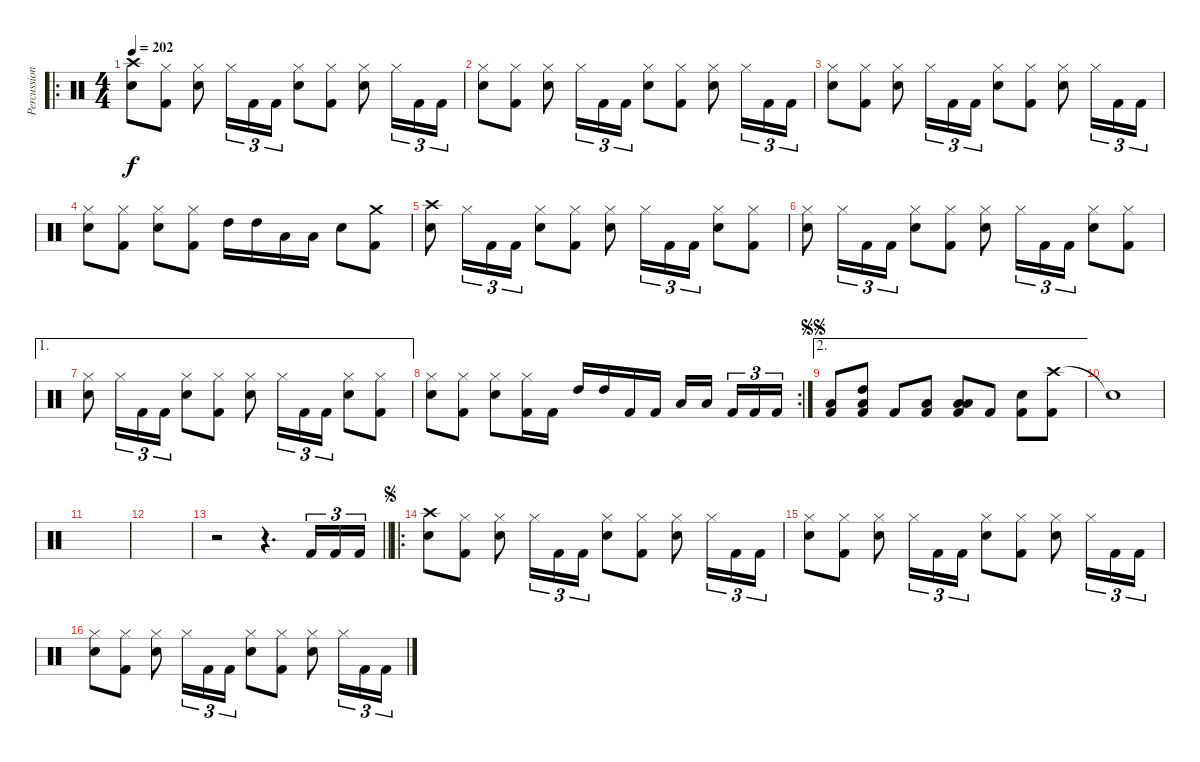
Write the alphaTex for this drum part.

\track ("Percussion" "Percussion") {instrument percussion}
\staff {score}
\articulation defaults
\ro
\ts (4 4)
\tempo 202
\clef neutral
\ks c
("Crash high (hit)" "Electric Snare (hit)").8{dy f} ("Hi-Hat (closed)" "Kick (hit) 2").8 ("Hi-Hat (closed)" "Electric Snare (hit)").8 "Hi-Hat (closed)".16{tu (3 2)} "Kick (hit) 2".16{tu (3 2)} "Kick (hit) 2".16{tu (3 2)} ("Hi-Hat (closed)" "Electric Snare (hit)").8 ("Hi-Hat (closed)" "Kick (hit) 2").8 ("Hi-Hat (closed)" "Electric Snare (hit)").8 "Hi-Hat (closed)".16{tu (3 2)} "Kick (hit) 2".16{tu (3 2)} "Kick (hit) 2".16{tu (3 2)} |
("Hi-Hat (closed)" "Electric Snare (hit)").8 ("Hi-Hat (closed)" "Kick (hit) 2").8 ("Hi-Hat (closed)" "Electric Snare (hit)").8 "Hi-Hat (closed)".16{tu (3 2)} "Kick (hit) 2".16{tu (3 2)} "Kick (hit) 2".16{tu (3 2)} ("Hi-Hat (closed)" "Electric Snare (hit)").8 ("Hi-Hat (closed)" "Kick (hit) 2").8 ("Hi-Hat (closed)" "Electric Snare (hit)").8 "Hi-Hat (closed)".16{tu (3 2)} "Kick (hit) 2".16{tu (3 2)} "Kick (hit) 2".16{tu (3 2)} |
("Hi-Hat (closed)" "Electric Snare (hit)").8 ("Hi-Hat (closed)" "Kick (hit) 2").8 ("Hi-Hat (closed)" "Electric Snare (hit)").8 "Hi-Hat (closed)".16{tu (3 2)} "Kick (hit) 2".16{tu (3 2)} "Kick (hit) 2".16{tu (3 2)} ("Hi-Hat (closed)" "Electric Snare (hit)").8 ("Hi-Hat (closed)" "Kick (hit) 2").8 ("Hi-Hat (closed)" "Electric Snare (hit)").8 "Hi-Hat (closed)".16{tu (3 2)} "Kick (hit) 2".16{tu (3 2)} "Kick (hit) 2".16{tu (3 2)} |
("Hi-Hat (closed)" "Electric Snare (hit)").8 ("Hi-Hat (closed)" "Kick (hit) 2").8 ("Hi-Hat (closed)" "Electric Snare (hit)").8 ("Hi-Hat (closed)" "Kick (hit) 2").8 "High Tom (hit)".16 "High Tom (hit)".16 "Low Tom (hit)".16 "Low Tom (hit)".16 "Electric Snare (hit)".8 ("Crash medium (hit)" "Kick (hit) 2").8 |
("Crash high (hit)" "Electric Snare (hit)").8 "Hi-Hat (closed)".16{tu (3 2)} "Kick (hit) 2".16{tu (3 2)} "Kick (hit) 2".16{tu (3 2)} ("Hi-Hat (closed)" "Electric Snare (hit)").8 ("Hi-Hat (closed)" "Kick (hit) 2").8 ("Hi-Hat (closed)" "Electric Snare (hit)").8 "Hi-Hat (closed)".16{tu (3 2)} "Kick (hit) 2".16{tu (3 2)} "Kick (hit) 2".16{tu (3 2)} ("Hi-Hat (closed)" "Electric Snare (hit)").8 ("Hi-Hat (closed)" "Kick (hit) 2").8 |
("Hi-Hat (closed)" "Electric Snare (hit)").8 "Hi-Hat (closed)".16{tu (3 2)} "Kick (hit) 2".16{tu (3 2)} "Kick (hit) 2".16{tu (3 2)} ("Hi-Hat (closed)" "Electric Snare (hit)").8 ("Hi-Hat (closed)" "Kick (hit) 2").8 ("Hi-Hat (closed)" "Electric Snare (hit)").8 "Hi-Hat (closed)".16{tu (3 2)} "Kick (hit) 2".16{tu (3 2)} "Kick (hit) 2".16{tu (3 2)} ("Hi-Hat (closed)" "Electric Snare (hit)").8 ("Hi-Hat (closed)" "Kick (hit) 2").8 |
\ae 1
("Hi-Hat (closed)" "Electric Snare (hit)").8 "Hi-Hat (closed)".16{tu (3 2)} "Kick (hit) 2".16{tu (3 2)} "Kick (hit) 2".16{tu (3 2)} ("Hi-Hat (closed)" "Electric Snare (hit)").8 ("Hi-Hat (closed)" "Kick (hit) 2").8 ("Hi-Hat (closed)" "Electric Snare (hit)").8 "Hi-Hat (closed)".16{tu (3 2)} "Kick (hit) 2".16{tu (3 2)} "Kick (hit) 2".16{tu (3 2)} ("Hi-Hat (closed)" "Electric Snare (hit)").8 ("Hi-Hat (closed)" "Kick (hit) 2").8 |
\rc 2
("Hi-Hat (closed)" "Electric Snare (hit)").8 ("Hi-Hat (closed)" "Kick (hit) 2").8 ("Hi-Hat (closed)" "Electric Snare (hit)").8 ("Hi-Hat (closed)" "Kick (hit) 2").16 "Kick (hit) 2".16 "High Tom (hit)".16 "High Tom (hit)".16 "Kick (hit) 2".16 "Kick (hit) 2".16 "Low Tom (hit)".16 "Low Tom (hit)".16{beam splitsecondary} "Kick (hit) 2".16{tu (3 2)} "Kick (hit) 2".16{tu (3 2)} "Kick (hit) 2".16{tu (3 2)} |
\ae 2
\jump segnosegno
("Low Floor Tom (hit)" "Kick (hit) 2").8 ("High Tom (hit)" "Low Floor Tom (hit)" "Kick (hit) 2").8 "Kick (hit) 2".8 ("Low Floor Tom (hit)" "Kick (hit) 2").8 ("Low Tom (hit)" "Low Floor Tom (hit)" "Kick (hit) 2").8 "Kick (hit) 2".8 ("Electric Snare (hit)" "Kick (hit) 2").8 ("Crash high (hit)" "Kick (hit) 2").8 |
"Snare (hit)"{t}.1 |
|
|
\barLineRight lightlight
r.2 r.4{d} "Kick (hit) 2".16{tu (3 2)} "Kick (hit) 2".16{tu (3 2)} "Kick (hit) 2".16{tu (3 2)} |
\ro
\jump segno
("Crash high (hit)" "Electric Snare (hit)").8 ("Hi-Hat (closed)" "Kick (hit) 2").8 ("Hi-Hat (closed)" "Electric Snare (hit)").8 "Hi-Hat (closed)".16{tu (3 2)} "Kick (hit) 2".16{tu (3 2)} "Kick (hit) 2".16{tu (3 2)} ("Hi-Hat (closed)" "Electric Snare (hit)").8 ("Hi-Hat (closed)" "Kick (hit) 2").8 ("Hi-Hat (closed)" "Electric Snare (hit)").8 "Hi-Hat (closed)".16{tu (3 2)} "Kick (hit) 2".16{tu (3 2)} "Kick (hit) 2".16{tu (3 2)} |
("Hi-Hat (closed)" "Electric Snare (hit)").8 ("Hi-Hat (closed)" "Kick (hit) 2").8 ("Hi-Hat (closed)" "Electric Snare (hit)").8 "Hi-Hat (closed)".16{tu (3 2)} "Kick (hit) 2".16{tu (3 2)} "Kick (hit) 2".16{tu (3 2)} ("Hi-Hat (closed)" "Electric Snare (hit)").8 ("Hi-Hat (closed)" "Kick (hit) 2").8 ("Hi-Hat (closed)" "Electric Snare (hit)").8 "Hi-Hat (closed)".16{tu (3 2)} "Kick (hit) 2".16{tu (3 2)} "Kick (hit) 2".16{tu (3 2)} |
("Hi-Hat (closed)" "Electric Snare (hit)").8 ("Hi-Hat (closed)" "Kick (hit) 2").8 ("Hi-Hat (closed)" "Electric Snare (hit)").8 "Hi-Hat (closed)".16{tu (3 2)} "Kick (hit) 2".16{tu (3 2)} "Kick (hit) 2".16{tu (3 2)} ("Hi-Hat (closed)" "Electric Snare (hit)").8 ("Hi-Hat (closed)" "Kick (hit) 2").8 ("Hi-Hat (closed)" "Electric Snare (hit)").8 "Hi-Hat (closed)".16{tu (3 2)} "Kick (hit) 2".16{tu (3 2)} "Kick (hit) 2".16{tu (3 2)}
